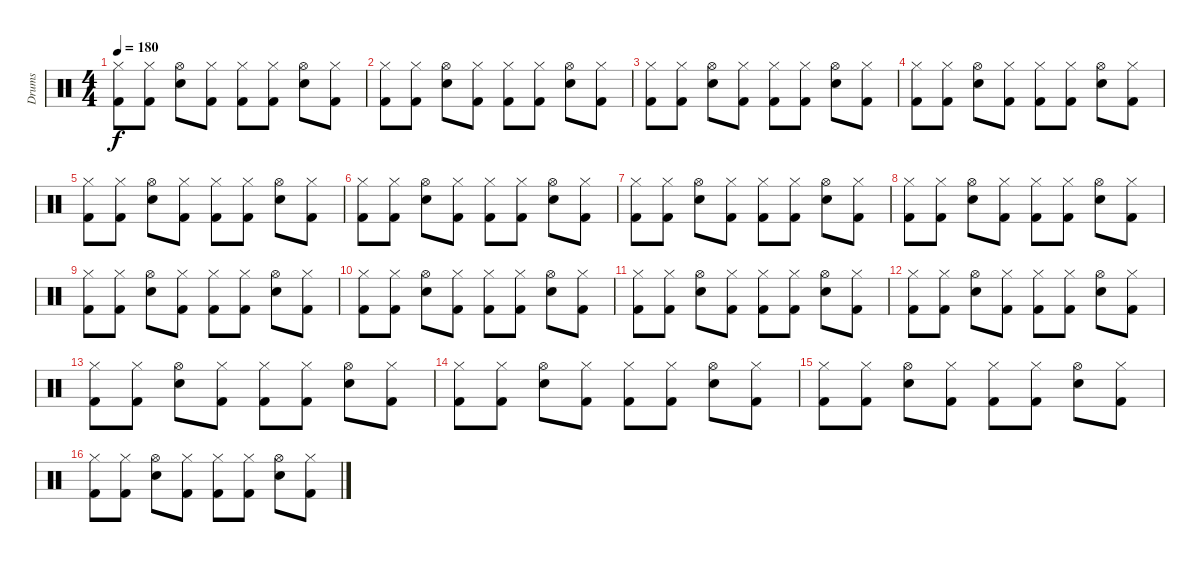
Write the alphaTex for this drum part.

\track ("Drums" "Drums") {instrument percussion}
\staff {score}
\articulation defaults
\ts (4 4)
\tempo 180
\clef neutral
\ks c
("Hi-Hat (closed)" "Kick (hit) 2").8{dy f} ("Hi-Hat (closed)" "Kick (hit) 2").8 ("Hi-Hat (open)" "Snare (hit) 2").8 ("Hi-Hat (closed)" "Kick (hit) 2").8 ("Hi-Hat (closed)" "Kick (hit) 2").8 ("Hi-Hat (closed)" "Kick (hit) 2").8 ("Hi-Hat (open)" "Snare (hit) 2").8 ("Hi-Hat (closed)" "Kick (hit) 2").8 |
("Hi-Hat (closed)" "Kick (hit) 2").8 ("Hi-Hat (closed)" "Kick (hit) 2").8 ("Hi-Hat (open)" "Snare (hit) 2").8 ("Hi-Hat (closed)" "Kick (hit) 2").8 ("Hi-Hat (closed)" "Kick (hit) 2").8 ("Hi-Hat (closed)" "Kick (hit) 2").8 ("Hi-Hat (open)" "Snare (hit) 2").8 ("Hi-Hat (closed)" "Kick (hit) 2").8 |
("Hi-Hat (closed)" "Kick (hit) 2").8 ("Hi-Hat (closed)" "Kick (hit) 2").8 ("Hi-Hat (open)" "Snare (hit) 2").8 ("Hi-Hat (closed)" "Kick (hit) 2").8 ("Hi-Hat (closed)" "Kick (hit) 2").8 ("Hi-Hat (closed)" "Kick (hit) 2").8 ("Hi-Hat (open)" "Snare (hit) 2").8 ("Hi-Hat (closed)" "Kick (hit) 2").8 |
("Hi-Hat (closed)" "Kick (hit) 2").8 ("Hi-Hat (closed)" "Kick (hit) 2").8 ("Hi-Hat (open)" "Snare (hit) 2").8 ("Hi-Hat (closed)" "Kick (hit) 2").8 ("Hi-Hat (closed)" "Kick (hit) 2").8 ("Hi-Hat (closed)" "Kick (hit) 2").8 ("Hi-Hat (open)" "Snare (hit) 2").8 ("Hi-Hat (closed)" "Kick (hit) 2").8 |
("Hi-Hat (closed)" "Kick (hit) 2").8 ("Hi-Hat (closed)" "Kick (hit) 2").8 ("Hi-Hat (open)" "Snare (hit) 2").8 ("Hi-Hat (closed)" "Kick (hit) 2").8 ("Hi-Hat (closed)" "Kick (hit) 2").8 ("Hi-Hat (closed)" "Kick (hit) 2").8 ("Hi-Hat (open)" "Snare (hit) 2").8 ("Hi-Hat (closed)" "Kick (hit) 2").8 |
("Hi-Hat (closed)" "Kick (hit) 2").8 ("Hi-Hat (closed)" "Kick (hit) 2").8 ("Hi-Hat (open)" "Snare (hit) 2").8 ("Hi-Hat (closed)" "Kick (hit) 2").8 ("Hi-Hat (closed)" "Kick (hit) 2").8 ("Hi-Hat (closed)" "Kick (hit) 2").8 ("Hi-Hat (open)" "Snare (hit) 2").8 ("Hi-Hat (closed)" "Kick (hit) 2").8 |
("Hi-Hat (closed)" "Kick (hit) 2").8 ("Hi-Hat (closed)" "Kick (hit) 2").8 ("Hi-Hat (open)" "Snare (hit) 2").8 ("Hi-Hat (closed)" "Kick (hit) 2").8 ("Hi-Hat (closed)" "Kick (hit) 2").8 ("Hi-Hat (closed)" "Kick (hit) 2").8 ("Hi-Hat (open)" "Snare (hit) 2").8 ("Hi-Hat (closed)" "Kick (hit) 2").8 |
("Hi-Hat (closed)" "Kick (hit) 2").8 ("Hi-Hat (closed)" "Kick (hit) 2").8 ("Hi-Hat (open)" "Snare (hit) 2").8 ("Hi-Hat (closed)" "Kick (hit) 2").8 ("Hi-Hat (closed)" "Kick (hit) 2").8 ("Hi-Hat (closed)" "Kick (hit) 2").8 ("Hi-Hat (open)" "Snare (hit) 2").8 ("Hi-Hat (closed)" "Kick (hit) 2").8 |
("Hi-Hat (closed)" "Kick (hit) 2").8 ("Hi-Hat (closed)" "Kick (hit) 2").8 ("Hi-Hat (open)" "Snare (hit) 2").8 ("Hi-Hat (closed)" "Kick (hit) 2").8 ("Hi-Hat (closed)" "Kick (hit) 2").8 ("Hi-Hat (closed)" "Kick (hit) 2").8 ("Hi-Hat (open)" "Snare (hit) 2").8 ("Hi-Hat (closed)" "Kick (hit) 2").8 |
("Hi-Hat (closed)" "Kick (hit) 2").8 ("Hi-Hat (closed)" "Kick (hit) 2").8 ("Hi-Hat (open)" "Snare (hit) 2").8 ("Hi-Hat (closed)" "Kick (hit) 2").8 ("Hi-Hat (closed)" "Kick (hit) 2").8 ("Hi-Hat (closed)" "Kick (hit) 2").8 ("Hi-Hat (open)" "Snare (hit) 2").8 ("Hi-Hat (closed)" "Kick (hit) 2").8 |
("Hi-Hat (closed)" "Kick (hit) 2").8 ("Hi-Hat (closed)" "Kick (hit) 2").8 ("Hi-Hat (open)" "Snare (hit) 2").8 ("Hi-Hat (closed)" "Kick (hit) 2").8 ("Hi-Hat (closed)" "Kick (hit) 2").8 ("Hi-Hat (closed)" "Kick (hit) 2").8 ("Hi-Hat (open)" "Snare (hit) 2").8 ("Hi-Hat (closed)" "Kick (hit) 2").8 |
("Hi-Hat (closed)" "Kick (hit) 2").8 ("Hi-Hat (closed)" "Kick (hit) 2").8 ("Hi-Hat (open)" "Snare (hit) 2").8 ("Hi-Hat (closed)" "Kick (hit) 2").8 ("Hi-Hat (closed)" "Kick (hit) 2").8 ("Hi-Hat (closed)" "Kick (hit) 2").8 ("Hi-Hat (open)" "Snare (hit) 2").8 ("Hi-Hat (closed)" "Kick (hit) 2").8 |
("Hi-Hat (closed)" "Kick (hit) 2").8 ("Hi-Hat (closed)" "Kick (hit) 2").8 ("Hi-Hat (open)" "Snare (hit) 2").8 ("Hi-Hat (closed)" "Kick (hit) 2").8 ("Hi-Hat (closed)" "Kick (hit) 2").8 ("Hi-Hat (closed)" "Kick (hit) 2").8 ("Hi-Hat (open)" "Snare (hit) 2").8 ("Hi-Hat (closed)" "Kick (hit) 2").8 |
("Hi-Hat (closed)" "Kick (hit) 2").8 ("Hi-Hat (closed)" "Kick (hit) 2").8 ("Hi-Hat (open)" "Snare (hit) 2").8 ("Hi-Hat (closed)" "Kick (hit) 2").8 ("Hi-Hat (closed)" "Kick (hit) 2").8 ("Hi-Hat (closed)" "Kick (hit) 2").8 ("Hi-Hat (open)" "Snare (hit) 2").8 ("Hi-Hat (closed)" "Kick (hit) 2").8 |
("Hi-Hat (closed)" "Kick (hit) 2").8 ("Hi-Hat (closed)" "Kick (hit) 2").8 ("Hi-Hat (open)" "Snare (hit) 2").8 ("Hi-Hat (closed)" "Kick (hit) 2").8 ("Hi-Hat (closed)" "Kick (hit) 2").8 ("Hi-Hat (closed)" "Kick (hit) 2").8 ("Hi-Hat (open)" "Snare (hit) 2").8 ("Hi-Hat (closed)" "Kick (hit) 2").8 |
("Hi-Hat (closed)" "Kick (hit) 2").8 ("Hi-Hat (closed)" "Kick (hit) 2").8 ("Hi-Hat (open)" "Snare (hit) 2").8 ("Hi-Hat (closed)" "Kick (hit) 2").8 ("Hi-Hat (closed)" "Kick (hit) 2").8 ("Hi-Hat (closed)" "Kick (hit) 2").8 ("Hi-Hat (open)" "Snare (hit) 2").8 ("Hi-Hat (closed)" "Kick (hit) 2").8
